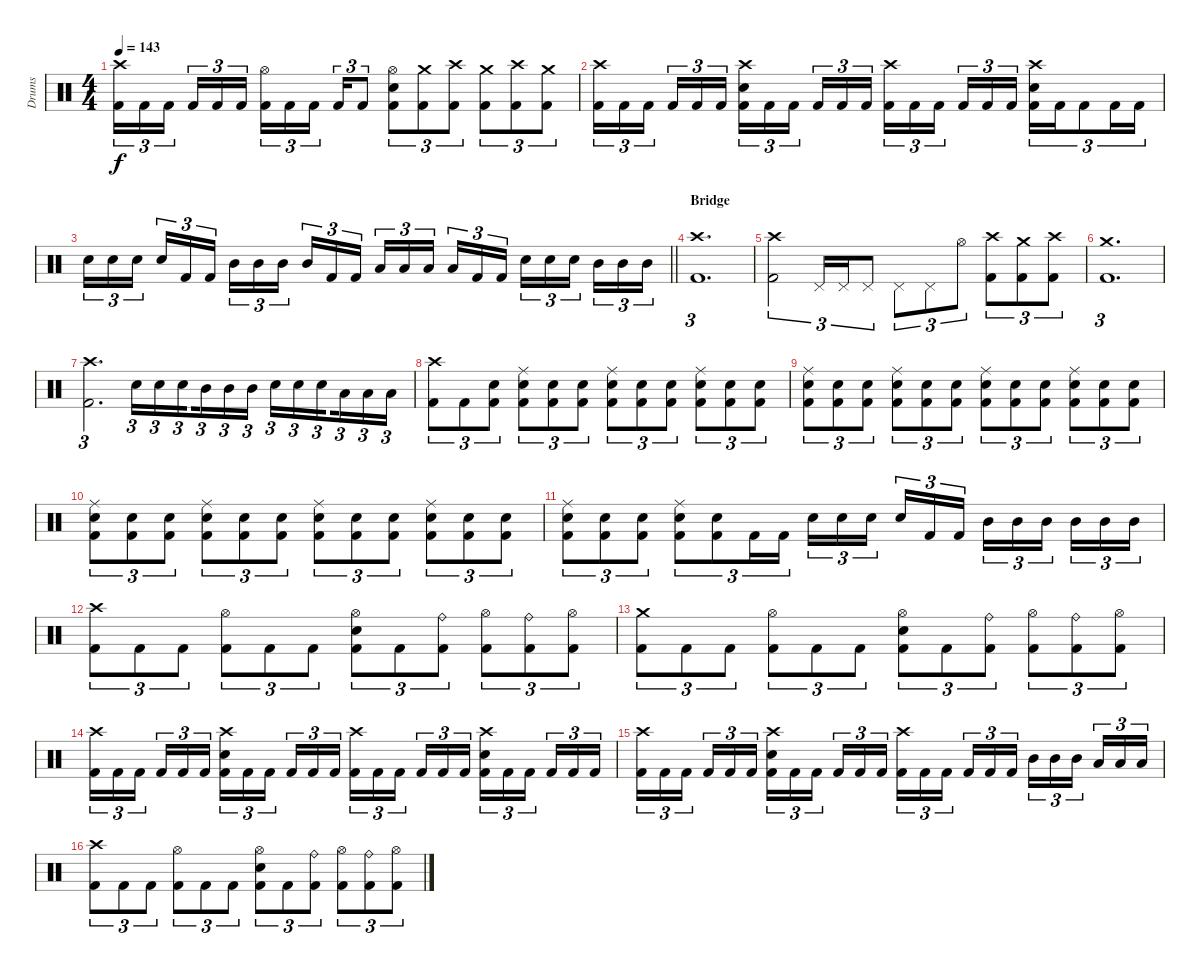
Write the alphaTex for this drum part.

\track ("Drums" "Drums") {instrument percussion}
\staff {score}
\articulation defaults
\ts (4 4)
\tempo 143
\clef neutral
\ks c
("Crash high (hit)" "Kick (hit) 2").16{tu (3 2) dy f} "Kick (hit) 2".16{tu (3 2)} "Kick (hit) 2".16{tu (3 2) beam splitsecondary} "Kick (hit) 2".16{tu (3 2)} "Kick (hit) 2".16{tu (3 2)} "Kick (hit) 2".16{tu (3 2)} ("Hi-Hat (open)" "Kick (hit) 2").16{tu (3 2)} "Kick (hit) 2".16{tu (3 2)} "Kick (hit) 2".16{tu (3 2) beam splitsecondary} "Kick (hit) 2".16{tu (3 2)} "Kick (hit) 2".8{tu (3 2)} ("Hi-Hat (open)" "Snare (hit) 2" "Kick (hit) 2").8{tu (3 2)} ("Crash medium (hit)" "Kick (hit) 2").8{tu (3 2)} ("Crash high (hit)" "Kick (hit) 2").8{tu (3 2)} ("Crash medium (hit)" "Kick (hit) 2").8{tu (3 2)} ("Crash high (hit)" "Kick (hit) 2").8{tu (3 2)} ("Crash medium (hit)" "Kick (hit) 2").8{tu (3 2)} |
("Crash high (hit)" "Kick (hit) 2").16{tu (3 2)} "Kick (hit) 2".16{tu (3 2)} "Kick (hit) 2".16{tu (3 2) beam splitsecondary} "Kick (hit) 2".16{tu (3 2)} "Kick (hit) 2".16{tu (3 2)} "Kick (hit) 2".16{tu (3 2)} ("Crash high (hit)" "Snare (hit) 2" "Kick (hit) 2").16{tu (3 2)} "Kick (hit) 2".16{tu (3 2)} "Kick (hit) 2".16{tu (3 2) beam splitsecondary} "Kick (hit) 2".16{tu (3 2)} "Kick (hit) 2".16{tu (3 2)} "Kick (hit) 2".16{tu (3 2)} ("Crash high (hit)" "Kick (hit) 2").16{tu (3 2)} "Kick (hit) 2".16{tu (3 2)} "Kick (hit) 2".16{tu (3 2) beam splitsecondary} "Kick (hit) 2".16{tu (3 2)} "Kick (hit) 2".16{tu (3 2)} "Kick (hit) 2".16{tu (3 2)} ("Crash high (hit)" "Snare (hit) 2" "Kick (hit) 2").16{tu (3 2)} "Kick (hit) 2".16{tu (3 2)} "Kick (hit) 2".8{tu (3 2)} "Kick (hit) 2".16{tu (3 2)} "Kick (hit) 2".16{tu (3 2)} |
\barLineRight lightlight "Snare (hit) 2".16{tu (3 2)} "Snare (hit) 2".16{tu (3 2)} "Snare (hit) 2".16{tu (3 2) beam splitsecondary} "Snare (hit) 2".16{tu (3 2)} "Kick (hit) 2".16{tu (3 2)} "Kick (hit) 2".16{tu (3 2)} "Mid Tom (hit)".16{tu (3 2)} "Mid Tom (hit)".16{tu (3 2)} "Mid Tom (hit)".16{tu (3 2) beam splitsecondary} "Mid Tom (hit)".16{tu (3 2)} "Kick (hit) 2".16{tu (3 2)} "Kick (hit) 2".16{tu (3 2)} "Low Tom (hit)".16{tu (3 2)} "Low Tom (hit)".16{tu (3 2)} "Low Tom (hit)".16{tu (3 2) beam splitsecondary} "Low Tom (hit)".16{tu (3 2)} "Kick (hit) 2".16{tu (3 2)} "Kick (hit) 2".16{tu (3 2)} "Snare (hit) 2".16{tu (3 2)} "Snare (hit) 2".16{tu (3 2)} "Snare (hit) 2".16{tu (3 2) beam splitsecondary} "Mid Tom (hit)".16{tu (3 2)} "Mid Tom (hit)".16{tu (3 2)} "Mid Tom (hit)".16{tu (3 2)}
|
\section ("" "Bridge")
("Crash high (hit)" "Kick (hit) 2").1{d tu (3 2)} |
("Crash high (hit)" "Kick (hit) 2").2{tu (3 2)} "Pedal Hi-Hat (hit)".16{tu (3 2)} "Pedal Hi-Hat (hit)".16{tu (3 2)} "Pedal Hi-Hat (hit)".8{tu (3 2)} "Pedal Hi-Hat (hit)".8{tu (3 2)} "Pedal Hi-Hat (hit)".8{tu (3 2)} "Hi-Hat (open)".8{tu (3 2)} ("Crash high (hit)" "Kick (hit) 2").8{tu (3 2)} ("Crash medium (hit)" "Kick (hit) 2").8{tu (3 2)} ("Crash high (hit)" "Kick (hit) 2").8{tu (3 2)} |
("Crash medium (hit)" "Kick (hit) 2").1{d tu (3 2)} |
("Crash high (hit)" "Kick (hit) 2").2{d tu (3 2)} "Snare (hit) 2".16{tu (3 2)} "Snare (hit) 2".16{tu (3 2)} "Snare (hit) 2".16{tu (3 2) beam splitsecondary} "Mid Tom (hit)".16{tu (3 2)} "Mid Tom (hit)".16{tu (3 2)} "Mid Tom (hit)".16{tu (3 2)} "Snare (hit) 2".16{tu (3 2)} "Snare (hit) 2".16{tu (3 2)} "Snare (hit) 2".16{tu (3 2) beam splitsecondary} "Low Tom (hit)".16{tu (3 2)} "Low Tom (hit)".16{tu (3 2)} "Low Tom (hit)".16{tu (3 2)} |
("Crash high (hit)" "Kick (hit) 2").8{tu (3 2)} "Kick (hit) 2".8{tu (3 2)} ("Snare (hit) 2" "Kick (hit) 2").8{tu (3 2)} ("Ride (middle)" "Snare (hit) 2" "Kick (hit) 2").8{tu (3 2)} ("Snare (hit) 2" "Kick (hit) 2").8{tu (3 2)} ("Snare (hit) 2" "Kick (hit) 2").8{tu (3 2)} ("Ride (middle)" "Snare (hit) 2" "Kick (hit) 2").8{tu (3 2)} ("Snare (hit) 2" "Kick (hit) 2").8{tu (3 2)} ("Snare (hit) 2" "Kick (hit) 2").8{tu (3 2)} ("Ride (middle)" "Snare (hit) 2" "Kick (hit) 2").8{tu (3 2)} ("Snare (hit) 2" "Kick (hit) 2").8{tu (3 2)} ("Snare (hit) 2" "Kick (hit) 2").8{tu (3 2)} |
("Ride (middle)" "Snare (hit) 2" "Kick (hit) 2").8{tu (3 2)} ("Snare (hit) 2" "Kick (hit) 2").8{tu (3 2)} ("Snare (hit) 2" "Kick (hit) 2").8{tu (3 2)} ("Ride (middle)" "Snare (hit) 2" "Kick (hit) 2").8{tu (3 2)} ("Snare (hit) 2" "Kick (hit) 2").8{tu (3 2)} ("Snare (hit) 2" "Kick (hit) 2").8{tu (3 2)} ("Ride (middle)" "Snare (hit) 2" "Kick (hit) 2").8{tu (3 2)} ("Snare (hit) 2" "Kick (hit) 2").8{tu (3 2)} ("Snare (hit) 2" "Kick (hit) 2").8{tu (3 2)} ("Ride (middle)" "Snare (hit) 2" "Kick (hit) 2").8{tu (3 2)} ("Snare (hit) 2" "Kick (hit) 2").8{tu (3 2)} ("Snare (hit) 2" "Kick (hit) 2").8{tu (3 2)} |
("Ride (middle)" "Snare (hit) 2" "Kick (hit) 2").8{tu (3 2)} ("Snare (hit) 2" "Kick (hit) 2").8{tu (3 2)} ("Snare (hit) 2" "Kick (hit) 2").8{tu (3 2)} ("Ride (middle)" "Snare (hit) 2" "Kick (hit) 2").8{tu (3 2)} ("Snare (hit) 2" "Kick (hit) 2").8{tu (3 2)} ("Snare (hit) 2" "Kick (hit) 2").8{tu (3 2)} ("Ride (middle)" "Snare (hit) 2" "Kick (hit) 2").8{tu (3 2)} ("Snare (hit) 2" "Kick (hit) 2").8{tu (3 2)} ("Snare (hit) 2" "Kick (hit) 2").8{tu (3 2)} ("Ride (middle)" "Snare (hit) 2" "Kick (hit) 2").8{tu (3 2)} ("Snare (hit) 2" "Kick (hit) 2").8{tu (3 2)} ("Snare (hit) 2" "Kick (hit) 2").8{tu (3 2)} |
("Ride (middle)" "Snare (hit) 2" "Kick (hit) 2").8{tu (3 2)} ("Snare (hit) 2" "Kick (hit) 2").8{tu (3 2)} ("Snare (hit) 2" "Kick (hit) 2").8{tu (3 2)} ("Ride (middle)" "Snare (hit) 2" "Kick (hit) 2").8{tu (3 2)} ("Snare (hit) 2" "Kick (hit) 2").8{tu (3 2)} "Kick (hit) 2".16{tu (3 2)} "Kick (hit) 2".16{tu (3 2)} "Snare (hit) 2".16{tu (3 2)} "Snare (hit) 2".16{tu (3 2)} "Snare (hit) 2".16{tu (3 2) beam splitsecondary} "Snare (hit) 2".16{tu (3 2)} "Kick (hit) 2".16{tu (3 2)} "Kick (hit) 2".16{tu (3 2)} "Mid Tom (hit)".16{tu (3 2)} "Mid Tom (hit)".16{tu (3 2)} "Mid Tom (hit)".16{tu (3 2) beam splitsecondary} "Mid Tom (hit)".16{tu (3 2)} "Mid Tom (hit)".16{tu (3 2)} "Mid Tom (hit)".16{tu (3 2)} |
("Crash high (hit)" "Kick (hit) 2").8{tu (3 2)} "Kick (hit) 2".8{tu (3 2)} "Kick (hit) 2".8{tu (3 2)} ("Hi-Hat (open)" "Kick (hit) 2").8{tu (3 2)} "Kick (hit) 2".8{tu (3 2)} "Kick (hit) 2".8{tu (3 2)} ("Hi-Hat (open)" "Snare (hit) 2" "Kick (hit) 2").8{tu (3 2)} "Kick (hit) 2".8{tu (3 2)} ("Ride (bell)" "Kick (hit) 2").8{tu (3 2)} ("Hi-Hat (open)" "Kick (hit) 2").8{tu (3 2)} ("Ride (bell)" "Kick (hit) 2").8{tu (3 2)} ("Hi-Hat (open)" "Kick (hit) 2").8{tu (3 2)} |
("Crash medium (hit)" "Kick (hit) 2").8{tu (3 2)} "Kick (hit) 2".8{tu (3 2)} "Kick (hit) 2".8{tu (3 2)} ("Hi-Hat (open)" "Kick (hit) 2").8{tu (3 2)} "Kick (hit) 2".8{tu (3 2)} "Kick (hit) 2".8{tu (3 2)} ("Hi-Hat (open)" "Snare (hit) 2" "Kick (hit) 2").8{tu (3 2)} "Kick (hit) 2".8{tu (3 2)} ("Ride (bell)" "Kick (hit) 2").8{tu (3 2)} ("Hi-Hat (open)" "Kick (hit) 2").8{tu (3 2)} ("Ride (bell)" "Kick (hit) 2").8{tu (3 2)} ("Hi-Hat (open)" "Kick (hit) 2").8{tu (3 2)} |
("Crash high (hit)" "Kick (hit) 2").16{tu (3 2)} "Kick (hit) 2".16{tu (3 2)} "Kick (hit) 2".16{tu (3 2) beam splitsecondary} "Kick (hit) 2".16{tu (3 2)} "Kick (hit) 2".16{tu (3 2)} "Kick (hit) 2".16{tu (3 2)} ("Crash high (hit)" "Snare (hit) 2" "Kick (hit) 2").16{tu (3 2)} "Kick (hit) 2".16{tu (3 2)} "Kick (hit) 2".16{tu (3 2) beam splitsecondary} "Kick (hit) 2".16{tu (3 2)} "Kick (hit) 2".16{tu (3 2)} "Kick (hit) 2".16{tu (3 2)} ("Crash high (hit)" "Kick (hit) 2").16{tu (3 2)} "Kick (hit) 2".16{tu (3 2)} "Kick (hit) 2".16{tu (3 2) beam splitsecondary} "Kick (hit) 2".16{tu (3 2)} "Kick (hit) 2".16{tu (3 2)} "Kick (hit) 2".16{tu (3 2)} ("Crash high (hit)" "Snare (hit) 2" "Kick (hit) 2").16{tu (3 2)} "Kick (hit) 2".16{tu (3 2)} "Kick (hit) 2".16{tu (3 2) beam splitsecondary} "Kick (hit) 2".16{tu (3 2)} "Kick (hit) 2".16{tu (3 2)} "Kick (hit) 2".16{tu (3 2)} |
("Crash high (hit)" "Kick (hit) 2").16{tu (3 2)} "Kick (hit) 2".16{tu (3 2)} "Kick (hit) 2".16{tu (3 2) beam splitsecondary} "Kick (hit) 2".16{tu (3 2)} "Kick (hit) 2".16{tu (3 2)} "Kick (hit) 2".16{tu (3 2)} ("Crash high (hit)" "Snare (hit) 2" "Kick (hit) 2").16{tu (3 2)} "Kick (hit) 2".16{tu (3 2)} "Kick (hit) 2".16{tu (3 2) beam splitsecondary} "Kick (hit) 2".16{tu (3 2)} "Kick (hit) 2".16{tu (3 2)} "Kick (hit) 2".16{tu (3 2)} ("Crash high (hit)" "Kick (hit) 2").16{tu (3 2)} "Kick (hit) 2".16{tu (3 2)} "Kick (hit) 2".16{tu (3 2) beam splitsecondary} "Kick (hit) 2".16{tu (3 2)} "Kick (hit) 2".16{tu (3 2)} "Kick (hit) 2".16{tu (3 2)} "Mid Tom (hit)".16{tu (3 2)} "Mid Tom (hit)".16{tu (3 2)} "Mid Tom (hit)".16{tu (3 2) beam splitsecondary} "Low Tom (hit)".16{tu (3 2)} "Low Tom (hit)".16{tu (3 2)} "Low Tom (hit)".16{tu (3 2)} |
("Crash high (hit)" "Kick (hit) 2").8{tu (3 2)} "Kick (hit) 2".8{tu (3 2)} "Kick (hit) 2".8{tu (3 2)} ("Hi-Hat (open)" "Kick (hit) 2").8{tu (3 2)} "Kick (hit) 2".8{tu (3 2)} "Kick (hit) 2".8{tu (3 2)} ("Hi-Hat (open)" "Snare (hit) 2" "Kick (hit) 2").8{tu (3 2)} "Kick (hit) 2".8{tu (3 2)} ("Ride (bell)" "Kick (hit) 2").8{tu (3 2)} ("Hi-Hat (open)" "Kick (hit) 2").8{tu (3 2)} ("Ride (bell)" "Kick (hit) 2").8{tu (3 2)} ("Hi-Hat (open)" "Kick (hit) 2").8{tu (3 2)}
